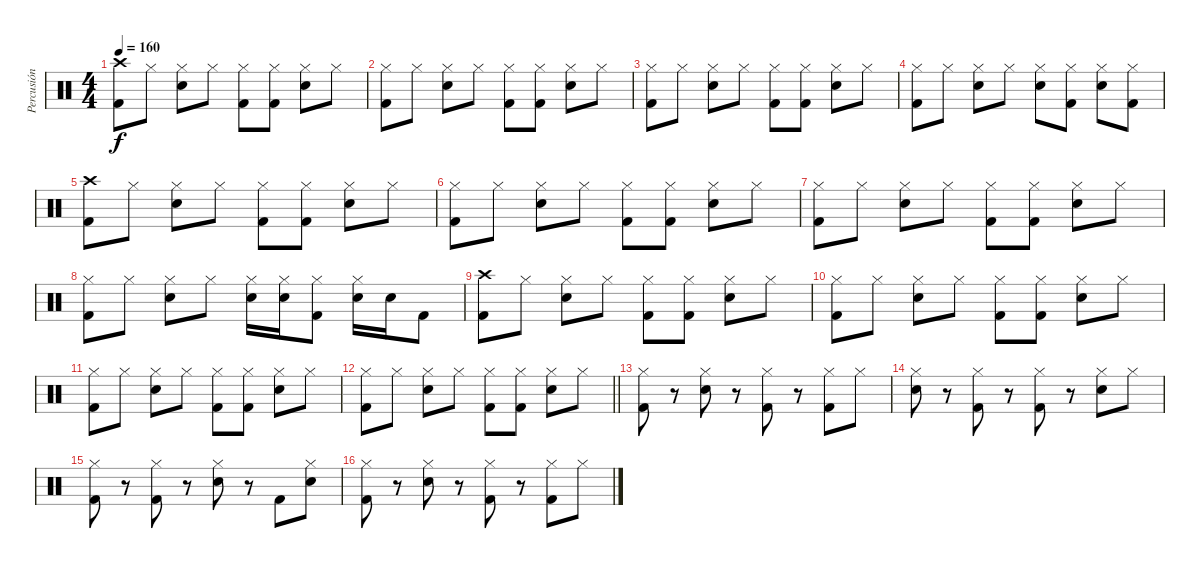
\track ("Percusión" "Percusión") {instrument percussion}
\staff {score}
\articulation defaults
\ts (4 4)
\tempo 160
\clef neutral
\ks c
("Crash high (hit)" "Kick (hit) 2").8{dy f} "Hi-Hat (closed)".8 ("Hi-Hat (closed)" "Snare (hit) 2").8 "Hi-Hat (closed)".8 ("Hi-Hat (closed)" "Kick (hit) 2").8 ("Hi-Hat (closed)" "Kick (hit) 2").8 ("Hi-Hat (closed)" "Snare (hit) 2").8 "Hi-Hat (closed)".8 |
("Hi-Hat (closed)" "Kick (hit) 2").8 "Hi-Hat (closed)".8 ("Hi-Hat (closed)" "Snare (hit) 2").8 "Hi-Hat (closed)".8 ("Hi-Hat (closed)" "Kick (hit) 2").8 ("Hi-Hat (closed)" "Kick (hit) 2").8 ("Hi-Hat (closed)" "Snare (hit) 2").8 "Hi-Hat (closed)".8 |
("Hi-Hat (closed)" "Kick (hit) 2").8 "Hi-Hat (closed)".8 ("Hi-Hat (closed)" "Snare (hit) 2").8 "Hi-Hat (closed)".8 ("Hi-Hat (closed)" "Kick (hit) 2").8 ("Hi-Hat (closed)" "Kick (hit) 2").8 ("Hi-Hat (closed)" "Snare (hit) 2").8 "Hi-Hat (closed)".8 |
("Hi-Hat (closed)" "Kick (hit) 2").8 "Hi-Hat (closed)".8 ("Hi-Hat (closed)" "Snare (hit) 2").8 "Hi-Hat (closed)".8 ("Hi-Hat (closed)" "Electric Snare (hit)").8 ("Hi-Hat (closed)" "Kick (hit) 2").8 ("Hi-Hat (closed)" "Electric Snare (hit)").8 ("Hi-Hat (closed)" "Kick (hit) 2").8 |
("Crash high (hit)" "Kick (hit) 2").8 "Hi-Hat (closed)".8 ("Hi-Hat (closed)" "Snare (hit) 2").8 "Hi-Hat (closed)".8 ("Hi-Hat (closed)" "Kick (hit) 2").8 ("Hi-Hat (closed)" "Kick (hit) 2").8 ("Hi-Hat (closed)" "Snare (hit) 2").8 "Hi-Hat (closed)".8 |
("Hi-Hat (closed)" "Kick (hit) 2").8 "Hi-Hat (closed)".8 ("Hi-Hat (closed)" "Snare (hit) 2").8 "Hi-Hat (closed)".8 ("Hi-Hat (closed)" "Kick (hit) 2").8 ("Hi-Hat (closed)" "Kick (hit) 2").8 ("Hi-Hat (closed)" "Snare (hit) 2").8 "Hi-Hat (closed)".8 |
("Hi-Hat (closed)" "Kick (hit) 2").8 "Hi-Hat (closed)".8 ("Hi-Hat (closed)" "Snare (hit) 2").8 "Hi-Hat (closed)".8 ("Hi-Hat (closed)" "Kick (hit) 2").8 ("Hi-Hat (closed)" "Kick (hit) 2").8 ("Hi-Hat (closed)" "Snare (hit) 2").8 "Hi-Hat (closed)".8 |
("Hi-Hat (closed)" "Kick (hit) 2").8 "Hi-Hat (closed)".8 ("Hi-Hat (closed)" "Snare (hit) 2").8 "Hi-Hat (closed)".8 ("Hi-Hat (closed)" "Electric Snare (hit)").16 ("Hi-Hat (closed)" "Electric Snare (hit)").16 ("Hi-Hat (closed)" "Kick (hit) 2").8 ("Hi-Hat (closed)" "Electric Snare (hit)").16 "Electric Snare (hit)".16 "Kick (hit) 2".8 |
("Crash high (hit)" "Kick (hit) 2").8 "Hi-Hat (closed)".8 ("Hi-Hat (closed)" "Snare (hit) 2").8 "Hi-Hat (closed)".8 ("Hi-Hat (closed)" "Kick (hit) 2").8 ("Hi-Hat (closed)" "Kick (hit) 2").8 ("Hi-Hat (closed)" "Snare (hit) 2").8 "Hi-Hat (closed)".8 |
("Hi-Hat (closed)" "Kick (hit) 2").8 "Hi-Hat (closed)".8 ("Hi-Hat (closed)" "Snare (hit) 2").8 "Hi-Hat (closed)".8 ("Hi-Hat (closed)" "Kick (hit) 2").8 ("Hi-Hat (closed)" "Kick (hit) 2").8 ("Hi-Hat (closed)" "Snare (hit) 2").8 "Hi-Hat (closed)".8 |
("Hi-Hat (closed)" "Kick (hit) 2").8 "Hi-Hat (closed)".8 ("Hi-Hat (closed)" "Snare (hit) 2").8 "Hi-Hat (closed)".8 ("Hi-Hat (closed)" "Kick (hit) 2").8 ("Hi-Hat (closed)" "Kick (hit) 2").8 ("Hi-Hat (closed)" "Snare (hit) 2").8 "Hi-Hat (closed)".8 |
\barLineRight lightlight
("Hi-Hat (closed)" "Kick (hit) 2").8 "Hi-Hat (closed)".8 ("Hi-Hat (closed)" "Snare (hit) 2").8 "Hi-Hat (closed)".8 ("Hi-Hat (closed)" "Kick (hit) 2").8 ("Hi-Hat (closed)" "Kick (hit) 2").8 ("Hi-Hat (closed)" "Snare (hit) 2").8 "Hi-Hat (closed)".8 |
("Hi-Hat (closed)" "Kick (hit) 2").8 r.8 ("Hi-Hat (closed)" "Snare (hit) 2").8 r.8 ("Hi-Hat (closed)" "Kick (hit) 2").8 r.8 ("Hi-Hat (closed)" "Kick (hit) 2").8 "Hi-Hat (closed)".8 |
("Hi-Hat (closed)" "Snare (hit) 2").8 r.8 ("Hi-Hat (closed)" "Kick (hit) 2").8 r.8 ("Hi-Hat (closed)" "Kick (hit) 2").8 r.8 ("Hi-Hat (closed)" "Snare (hit) 2").8 "Hi-Hat (closed)".8 |
("Hi-Hat (closed)" "Kick (hit) 2").8 r.8 ("Hi-Hat (closed)" "Kick (hit) 2").8 r.8 ("Hi-Hat (closed)" "Snare (hit) 2").8 r.8 "Kick (hit) 2".8 ("Hi-Hat (closed)" "Snare (hit) 2").8 |
("Hi-Hat (closed)" "Kick (hit) 2").8 r.8 ("Hi-Hat (closed)" "Snare (hit) 2").8 r.8 ("Hi-Hat (closed)" "Kick (hit) 2").8 r.8 ("Hi-Hat (closed)" "Kick (hit) 2").8 "Hi-Hat (closed)".8
